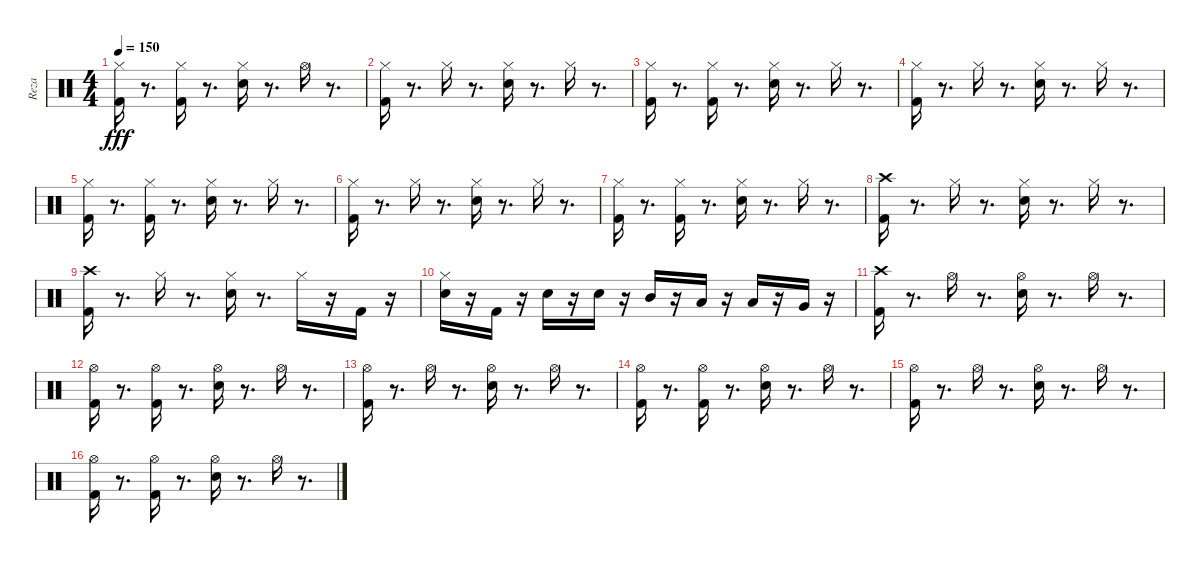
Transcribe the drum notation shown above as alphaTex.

\track ("Reza" "Reza") {instrument percussion}
\staff {score}
\articulation defaults
\ts (4 4)
\tempo 150
\clef neutral
\ks c
("Kick (hit) 2" "Hi-Hat (closed)").16{dy fff} r.8{d} ("Kick (hit) 2" "Hi-Hat (closed)").16 r.8{d} ("Snare (hit) 2" "Hi-Hat (closed)").16 r.8{d} "Hi-Hat (open)".16 r.8{d} |
("Kick (hit) 2" "Hi-Hat (closed)").16 r.8{d} "Hi-Hat (closed)".16 r.8{d} ("Snare (hit) 2" "Hi-Hat (closed)").16 r.8{d} "Hi-Hat (closed)".16 r.8{d} |
("Kick (hit) 2" "Hi-Hat (closed)").16 r.8{d} ("Kick (hit) 2" "Hi-Hat (closed)").16 r.8{d} ("Snare (hit) 2" "Hi-Hat (closed)").16 r.8{d} "Hi-Hat (closed)".16 r.8{d} |
("Kick (hit) 2" "Hi-Hat (closed)").16 r.8{d} "Hi-Hat (closed)".16 r.8{d} ("Snare (hit) 2" "Hi-Hat (closed)").16 r.8{d} "Hi-Hat (closed)".16 r.8{d} |
("Kick (hit) 2" "Hi-Hat (closed)").16 r.8{d} ("Hi-Hat (closed)" "Kick (hit) 2").16 r.8{d} ("Snare (hit) 2" "Hi-Hat (closed)").16 r.8{d} "Hi-Hat (closed)".16 r.8{d} |
("Kick (hit) 2" "Hi-Hat (closed)").16 r.8{d} "Hi-Hat (closed)".16 r.8{d} ("Snare (hit) 2" "Hi-Hat (closed)").16 r.8{d} "Hi-Hat (closed)".16 r.8{d} |
("Kick (hit) 2" "Hi-Hat (closed)").16 r.8{d} ("Kick (hit) 2" "Hi-Hat (closed)").16 r.8{d} ("Snare (hit) 2" "Hi-Hat (closed)").16 r.8{d} "Hi-Hat (closed)".16 r.8{d} |
("Crash high (hit)" "Kick (hit) 2").16 r.8{d} "Hi-Hat (closed)".16 r.8{d} ("Snare (hit) 2" "Hi-Hat (closed)").16 r.8{d} "Hi-Hat (closed)".16 r.8{d} |
("Crash high (hit)" "Kick (hit) 2").16 r.8{d} "Hi-Hat (closed)".16 r.8{d} ("Snare (hit) 2" "Hi-Hat (closed)").16 r.8{d} "Hi-Hat (closed)".16 r.16 "Kick (hit) 2".16 r.16 |
("Hi-Hat (closed)" "Snare (hit) 2").16 r.16 "Kick (hit) 2".16 r.16 "Snare (hit) 2".16 r.16 "Snare (hit) 2".16 r.16 "Mid Tom (hit)".16 r.16 "Low Tom (hit)".16 r.16 "Low Tom (hit)".16 r.16 "Very Low Tom (hit)".16 r.16 |
("Kick (hit) 2" "Crash high (hit)").16 r.8{d} "Hi-Hat (open)".16 r.8{d} ("Hi-Hat (open)" "Snare (hit) 2").16 r.8{d} "Hi-Hat (open)".16 r.8{d} |
("Kick (hit) 2" "Hi-Hat (open)").16 r.8{d} ("Hi-Hat (open)" "Kick (hit) 2").16 r.8{d} ("Snare (hit) 2" "Hi-Hat (open)").16 r.8{d} "Hi-Hat (open)".16 r.8{d} |
("Kick (hit) 2" "Hi-Hat (open)").16 r.8{d} "Hi-Hat (open)".16 r.8{d} ("Hi-Hat (open)" "Snare (hit) 2").16 r.8{d} "Hi-Hat (open)".16 r.8{d} |
("Hi-Hat (open)" "Kick (hit) 2").16 r.8{d} ("Hi-Hat (open)" "Kick (hit) 2").16 r.8{d} ("Snare (hit) 2" "Hi-Hat (open)").16 r.8{d} "Hi-Hat (open)".16 r.8{d} |
("Kick (hit) 2" "Hi-Hat (open)").16 r.8{d} "Hi-Hat (open)".16 r.8{d} ("Snare (hit) 2" "Hi-Hat (open)").16 r.8{d} "Hi-Hat (open)".16 r.8{d} |
("Hi-Hat (open)" "Kick (hit) 2").16 r.8{d} ("Hi-Hat (open)" "Kick (hit) 2").16 r.8{d} ("Snare (hit) 2" "Hi-Hat (open)").16 r.8{d} "Hi-Hat (open)".16 r.8{d}
